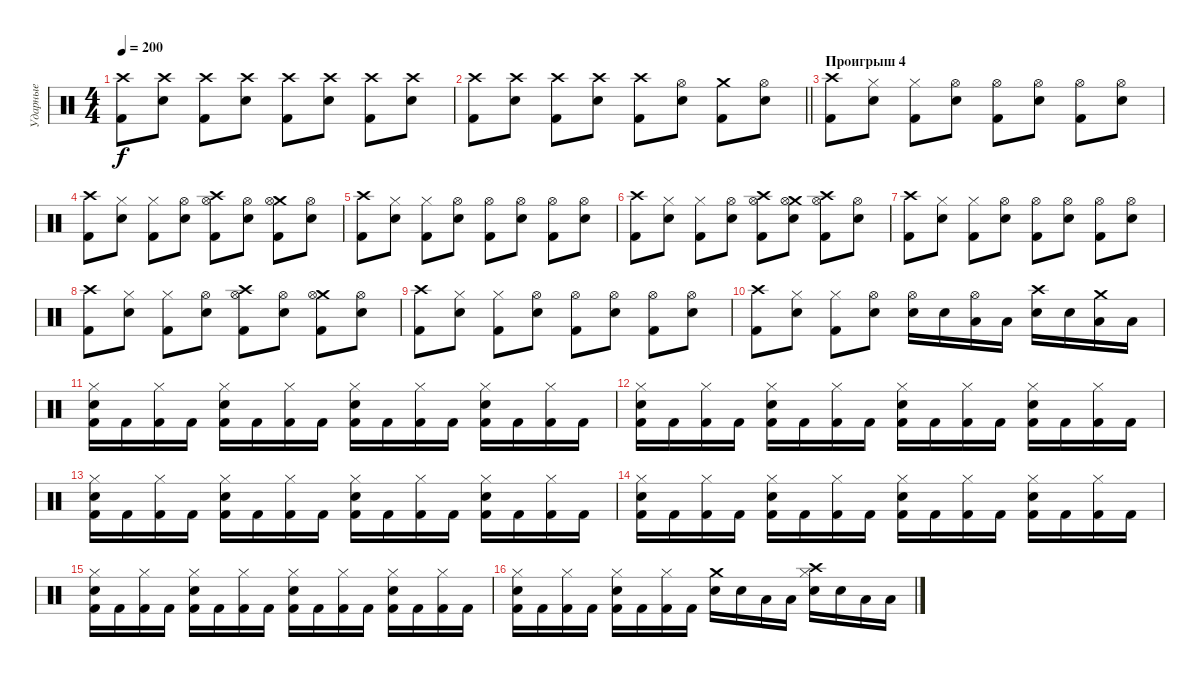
\track ("Ударные" "Ударные") {instrument percussion}
\staff {score}
\articulation defaults
\ts (4 4)
\tempo 200
\clef neutral
\ks c
("Crash high (hit)" "Kick (hit) 2").8{dy f} ("Crash high (hit)" "Snare (hit) 2").8 ("Crash high (hit)" "Kick (hit) 2").8 ("Crash high (hit)" "Snare (hit) 2").8 ("Crash high (hit)" "Kick (hit) 2").8 ("Crash high (hit)" "Snare (hit) 2").8 ("Crash high (hit)" "Kick (hit) 2").8 ("Crash high (hit)" "Snare (hit) 2").8 |
\barLineRight lightlight
("Crash high (hit)" "Kick (hit) 2").8 ("Crash high (hit)" "Snare (hit) 2").8 ("Crash high (hit)" "Kick (hit) 2").8 ("Crash high (hit)" "Snare (hit) 2").8 ("Crash high (hit)" "Kick (hit) 2").8 ("Hi-Hat (open)" "Snare (hit) 2").8 ("Crash medium (hit)" "Kick (hit) 2").8 ("Hi-Hat (open)" "Snare (hit) 2").8 |
\section ("" "Проигрыш 4")
("Crash high (hit)" "Kick (hit) 2").8 ("Hi-Hat (closed)" "Snare (hit) 2").8 ("Hi-Hat (closed)" "Kick (hit) 2").8 ("Hi-Hat (open)" "Snare (hit) 2").8 ("Hi-Hat (open)" "Kick (hit) 2").8 ("Hi-Hat (open)" "Snare (hit) 2").8 ("Hi-Hat (open)" "Kick (hit) 2").8 ("Hi-Hat (open)" "Snare (hit) 2").8 |
("Crash high (hit)" "Kick (hit) 2").8 ("Hi-Hat (closed)" "Snare (hit) 2").8 ("Hi-Hat (closed)" "Kick (hit) 2").8 ("Hi-Hat (open)" "Snare (hit) 2").8 ("Crash high (hit)" "Hi-Hat (open)" "Kick (hit) 2").8 ("Hi-Hat (open)" "Snare (hit) 2").8 ("Crash medium (hit)" "Hi-Hat (open)" "Kick (hit) 2").8 ("Hi-Hat (open)" "Snare (hit) 2").8 |
("Crash high (hit)" "Kick (hit) 2").8 ("Hi-Hat (closed)" "Snare (hit) 2").8 ("Hi-Hat (closed)" "Kick (hit) 2").8 ("Hi-Hat (open)" "Snare (hit) 2").8 ("Hi-Hat (open)" "Kick (hit) 2").8 ("Hi-Hat (open)" "Snare (hit) 2").8 ("Hi-Hat (open)" "Kick (hit) 2").8 ("Hi-Hat (open)" "Snare (hit) 2").8 |
("Crash high (hit)" "Kick (hit) 2").8 ("Hi-Hat (closed)" "Snare (hit) 2").8 ("Hi-Hat (closed)" "Kick (hit) 2").8 ("Hi-Hat (open)" "Snare (hit) 2").8 ("Crash high (hit)" "Hi-Hat (open)" "Kick (hit) 2").8 ("Crash medium (hit)" "Hi-Hat (open)" "Snare (hit) 2").8 ("Crash high (hit)" "Hi-Hat (open)" "Kick (hit) 2").8 ("Hi-Hat (open)" "Snare (hit) 2").8 |
("Crash high (hit)" "Kick (hit) 2").8 ("Hi-Hat (closed)" "Snare (hit) 2").8 ("Hi-Hat (closed)" "Kick (hit) 2").8 ("Hi-Hat (open)" "Snare (hit) 2").8 ("Hi-Hat (open)" "Kick (hit) 2").8 ("Hi-Hat (open)" "Snare (hit) 2").8 ("Hi-Hat (open)" "Kick (hit) 2").8 ("Hi-Hat (open)" "Snare (hit) 2").8 |
("Crash high (hit)" "Kick (hit) 2").8 ("Hi-Hat (closed)" "Snare (hit) 2").8 ("Hi-Hat (closed)" "Kick (hit) 2").8 ("Hi-Hat (open)" "Snare (hit) 2").8 ("Crash high (hit)" "Hi-Hat (open)" "Kick (hit) 2").8 ("Hi-Hat (open)" "Snare (hit) 2").8 ("Crash medium (hit)" "Hi-Hat (open)" "Kick (hit) 2").8 ("Hi-Hat (open)" "Snare (hit) 2").8 |
("Crash high (hit)" "Kick (hit) 2").8 ("Hi-Hat (closed)" "Snare (hit) 2").8 ("Hi-Hat (closed)" "Kick (hit) 2").8 ("Hi-Hat (open)" "Snare (hit) 2").8 ("Hi-Hat (open)" "Kick (hit) 2").8 ("Hi-Hat (open)" "Snare (hit) 2").8 ("Hi-Hat (open)" "Kick (hit) 2").8 ("Hi-Hat (open)" "Snare (hit) 2").8 |
("Crash high (hit)" "Kick (hit) 2").8 ("Hi-Hat (closed)" "Snare (hit) 2").8 ("Hi-Hat (closed)" "Kick (hit) 2").8 ("Hi-Hat (open)" "Snare (hit) 2").8 ("Hi-Hat (open)" "Snare (hit) 2").16 "Snare (hit) 2".16 ("Hi-Hat (open)" "Low Tom (hit)").16 "Low Tom (hit)".16 ("Crash high (hit)" "Snare (hit) 2").16 "Snare (hit) 2".16 ("Crash medium (hit)" "Low Tom (hit)").16 "Low Tom (hit)".16 |
("Hi-Hat (closed)" "Snare (hit) 2" "Kick (hit) 2").16 "Kick (hit) 2".16 ("Hi-Hat (closed)" "Kick (hit) 2").16 "Kick (hit) 2".16 ("Hi-Hat (closed)" "Snare (hit) 2" "Kick (hit) 2").16 "Kick (hit) 2".16 ("Hi-Hat (closed)" "Kick (hit) 2").16 "Kick (hit) 2".16 ("Hi-Hat (closed)" "Snare (hit) 2" "Kick (hit) 2").16 "Kick (hit) 2".16 ("Hi-Hat (closed)" "Kick (hit) 2").16 "Kick (hit) 2".16 ("Hi-Hat (closed)" "Snare (hit) 2" "Kick (hit) 2").16 "Kick (hit) 2".16 ("Hi-Hat (closed)" "Kick (hit) 2").16 "Kick (hit) 2".16 |
("Hi-Hat (closed)" "Snare (hit) 2" "Kick (hit) 2").16 "Kick (hit) 2".16 ("Hi-Hat (closed)" "Kick (hit) 2").16 "Kick (hit) 2".16 ("Hi-Hat (closed)" "Snare (hit) 2" "Kick (hit) 2").16 "Kick (hit) 2".16 ("Hi-Hat (closed)" "Kick (hit) 2").16 "Kick (hit) 2".16 ("Hi-Hat (closed)" "Snare (hit) 2" "Kick (hit) 2").16 "Kick (hit) 2".16 ("Hi-Hat (closed)" "Kick (hit) 2").16 "Kick (hit) 2".16 ("Hi-Hat (closed)" "Snare (hit) 2" "Kick (hit) 2").16 "Kick (hit) 2".16 ("Hi-Hat (closed)" "Kick (hit) 2").16 "Kick (hit) 2".16 |
("Hi-Hat (closed)" "Snare (hit) 2" "Kick (hit) 2").16 "Kick (hit) 2".16 ("Hi-Hat (closed)" "Kick (hit) 2").16 "Kick (hit) 2".16 ("Hi-Hat (closed)" "Snare (hit) 2" "Kick (hit) 2").16 "Kick (hit) 2".16 ("Hi-Hat (closed)" "Kick (hit) 2").16 "Kick (hit) 2".16 ("Hi-Hat (closed)" "Snare (hit) 2" "Kick (hit) 2").16 "Kick (hit) 2".16 ("Hi-Hat (closed)" "Kick (hit) 2").16 "Kick (hit) 2".16 ("Hi-Hat (closed)" "Snare (hit) 2" "Kick (hit) 2").16 "Kick (hit) 2".16 ("Hi-Hat (closed)" "Kick (hit) 2").16 "Kick (hit) 2".16 |
("Hi-Hat (closed)" "Snare (hit) 2" "Kick (hit) 2").16 "Kick (hit) 2".16 ("Hi-Hat (closed)" "Kick (hit) 2").16 "Kick (hit) 2".16 ("Hi-Hat (closed)" "Snare (hit) 2" "Kick (hit) 2").16 "Kick (hit) 2".16 ("Hi-Hat (closed)" "Kick (hit) 2").16 "Kick (hit) 2".16 ("Hi-Hat (closed)" "Snare (hit) 2" "Kick (hit) 2").16 "Kick (hit) 2".16 ("Hi-Hat (closed)" "Kick (hit) 2").16 "Kick (hit) 2".16 ("Hi-Hat (closed)" "Snare (hit) 2" "Kick (hit) 2").16 "Kick (hit) 2".16 ("Hi-Hat (closed)" "Kick (hit) 2").16 "Kick (hit) 2".16 |
("Hi-Hat (closed)" "Snare (hit) 2" "Kick (hit) 2").16 "Kick (hit) 2".16 ("Hi-Hat (closed)" "Kick (hit) 2").16 "Kick (hit) 2".16 ("Hi-Hat (closed)" "Snare (hit) 2" "Kick (hit) 2").16 "Kick (hit) 2".16 ("Hi-Hat (closed)" "Kick (hit) 2").16 "Kick (hit) 2".16 ("Hi-Hat (closed)" "Snare (hit) 2" "Kick (hit) 2").16 "Kick (hit) 2".16 ("Hi-Hat (closed)" "Kick (hit) 2").16 "Kick (hit) 2".16 ("Hi-Hat (closed)" "Snare (hit) 2" "Kick (hit) 2").16 "Kick (hit) 2".16 ("Hi-Hat (closed)" "Kick (hit) 2").16 "Kick (hit) 2".16 |
("Hi-Hat (closed)" "Snare (hit) 2" "Kick (hit) 2").16 "Kick (hit) 2".16 ("Hi-Hat (closed)" "Kick (hit) 2").16 "Kick (hit) 2".16 ("Hi-Hat (closed)" "Snare (hit) 2" "Kick (hit) 2").16 "Kick (hit) 2".16 ("Hi-Hat (closed)" "Kick (hit) 2").16 "Kick (hit) 2".16 ("Crash medium (hit)" "Snare (hit) 2").16 "Snare (hit) 2".16 "Low Tom (hit)".16 "Low Tom (hit)".16 ("Crash high (hit)" "Hi-Hat (closed)" "Snare (hit) 2").16 "Snare (hit) 2".16 "Low Tom (hit)".16 "Low Tom (hit)".16
